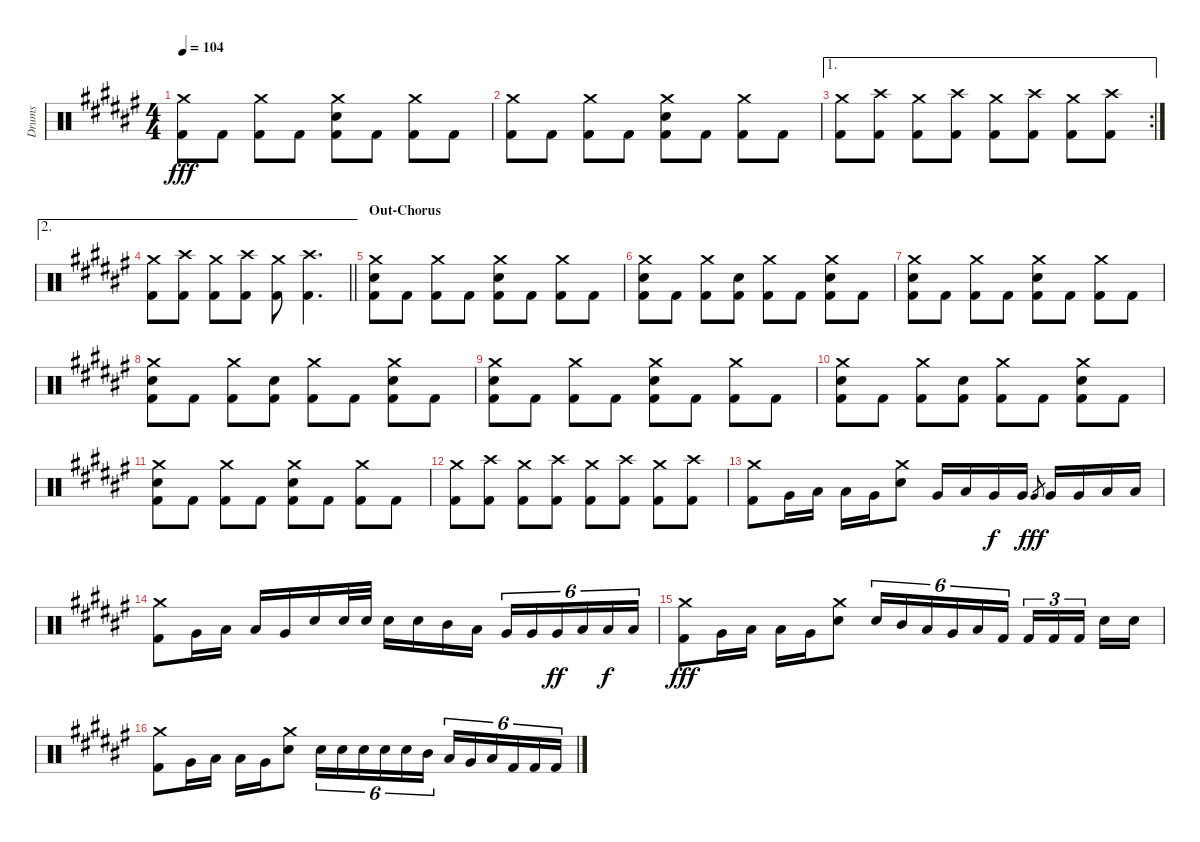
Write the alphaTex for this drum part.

\track ("Drums" "Drums") {instrument percussion}
\staff {score}
\articulation defaults
\ts (4 4)
\tempo 104
\clef neutral
\ks f#
("Crash medium (hit)" "Kick (hit) 2").8{dy fff} "Kick (hit) 2".8 ("Crash medium (hit)" "Kick (hit) 2").8 "Kick (hit) 2".8 ("Crash medium (hit)" "Snare (hit) 2" "Kick (hit) 2").8 "Kick (hit) 2".8 ("Crash medium (hit)" "Kick (hit) 2").8 "Kick (hit) 2".8 |
("Crash medium (hit)" "Kick (hit) 2").8 "Kick (hit) 2".8 ("Crash medium (hit)" "Kick (hit) 2").8 "Kick (hit) 2".8 ("Crash medium (hit)" "Snare (hit) 2" "Kick (hit) 2").8 "Kick (hit) 2".8 ("Crash medium (hit)" "Kick (hit) 2").8 "Kick (hit) 2".8 |
\ae 1
\rc 2
("Crash medium (hit)" "Kick (hit) 2").8 ("Crash high (hit)" "Kick (hit) 2").8 ("Crash medium (hit)" "Kick (hit) 2").8 ("Crash high (hit)" "Kick (hit) 2").8 ("Crash medium (hit)" "Kick (hit) 2").8 ("Crash high (hit)" "Kick (hit) 2").8 ("Crash medium (hit)" "Kick (hit) 2").8 ("Crash high (hit)" "Kick (hit) 2").8 |
\ae 2
\barLineRight lightlight
("Crash medium (hit)" "Kick (hit) 2").8 ("Crash high (hit)" "Kick (hit) 2").8 ("Crash medium (hit)" "Kick (hit) 2").8 ("Crash high (hit)" "Kick (hit) 2").8 ("Crash medium (hit)" "Kick (hit) 2").8 ("Crash high (hit)" "Kick (hit) 2").4{d} |
\section ("" "Out-Chorus")
("Crash medium (hit)" "Snare (hit) 2" "Kick (hit) 2").8 "Kick (hit) 2".8 ("Crash medium (hit)" "Kick (hit) 2").8 "Kick (hit) 2".8 ("Crash medium (hit)" "Snare (hit) 2" "Kick (hit) 2").8 "Kick (hit) 2".8 ("Crash medium (hit)" "Kick (hit) 2").8 "Kick (hit) 2".8 |
("Crash medium (hit)" "Snare (hit) 2" "Kick (hit) 2").8 "Kick (hit) 2".8 ("Crash medium (hit)" "Kick (hit) 2").8 ("Snare (hit) 2" "Kick (hit) 2").8 ("Crash medium (hit)" "Kick (hit) 2").8 "Kick (hit) 2".8 ("Crash medium (hit)" "Snare (hit) 2" "Kick (hit) 2").8 "Kick (hit) 2".8 |
("Crash medium (hit)" "Snare (hit) 2" "Kick (hit) 2").8 "Kick (hit) 2".8 ("Crash medium (hit)" "Kick (hit) 2").8 "Kick (hit) 2".8 ("Crash medium (hit)" "Snare (hit) 2" "Kick (hit) 2").8 "Kick (hit) 2".8 ("Crash medium (hit)" "Kick (hit) 2").8 "Kick (hit) 2".8 |
("Crash medium (hit)" "Snare (hit) 2" "Kick (hit) 2").8 "Kick (hit) 2".8 ("Crash medium (hit)" "Kick (hit) 2").8 ("Snare (hit) 2" "Kick (hit) 2").8 ("Crash medium (hit)" "Kick (hit) 2").8 "Kick (hit) 2".8 ("Crash medium (hit)" "Snare (hit) 2" "Kick (hit) 2").8 "Kick (hit) 2".8 |
("Crash medium (hit)" "Snare (hit) 2" "Kick (hit) 2").8 "Kick (hit) 2".8 ("Crash medium (hit)" "Kick (hit) 2").8 "Kick (hit) 2".8 ("Crash medium (hit)" "Snare (hit) 2" "Kick (hit) 2").8 "Kick (hit) 2".8 ("Crash medium (hit)" "Kick (hit) 2").8 "Kick (hit) 2".8 |
("Crash medium (hit)" "Snare (hit) 2" "Kick (hit) 2").8 "Kick (hit) 2".8 ("Crash medium (hit)" "Kick (hit) 2").8 ("Snare (hit) 2" "Kick (hit) 2").8 ("Crash medium (hit)" "Kick (hit) 2").8 "Kick (hit) 2".8 ("Crash medium (hit)" "Snare (hit) 2" "Kick (hit) 2").8 "Kick (hit) 2".8 |
("Crash medium (hit)" "Snare (hit) 2" "Kick (hit) 2").8 "Kick (hit) 2".8 ("Crash medium (hit)" "Kick (hit) 2").8 "Kick (hit) 2".8 ("Crash medium (hit)" "Snare (hit) 2" "Kick (hit) 2").8 "Kick (hit) 2".8 ("Crash medium (hit)" "Kick (hit) 2").8 "Kick (hit) 2".8 |
("Crash medium (hit)" "Kick (hit) 2").8 ("Crash high (hit)" "Kick (hit) 2").8 ("Crash medium (hit)" "Kick (hit) 2").8 ("Crash high (hit)" "Kick (hit) 2").8 ("Crash medium (hit)" "Kick (hit) 2").8 ("Crash high (hit)" "Kick (hit) 2").8 ("Crash medium (hit)" "Kick (hit) 2").8 ("Crash high (hit)" "Kick (hit) 2").8 |
("Crash medium (hit)" "Kick (hit) 2").8 "Very Low Tom (hit)".16 "Low Tom (hit)".16 "Low Floor Tom (hit)".16 "Very Low Tom (hit)".16 ("Crash medium (hit)" "Snare (hit) 2").8 "Very Low Tom (hit)".16 "Low Floor Tom (hit)".16 "Very Low Tom (hit)".16{dy f} "Very Low Tom (hit)".16 "Very Low Tom (hit)".8{gr dy fff} "Very Low Tom (hit)".16 "Very Low Tom (hit)".16 "Low Floor Tom (hit)".16 "Low Floor Tom (hit)".16 |
("Crash medium (hit)" "Kick (hit) 2").8 "Very Low Tom (hit)".16 "Low Tom (hit)".16 "Low Floor Tom (hit)".16 "Very Low Tom (hit)".16 "Snare (hit) 2".16 "Snare (hit) 2".32 "Snare (hit) 2".32 "Snare (hit) 2".16 "Snare (hit) 2".16 "Mid Tom (hit)".16 "Low Tom (hit)".16 "Very Low Tom (hit)".16{tu (6 4)} "Very Low Tom (hit)".16{tu (6 4)} "Very Low Tom (hit)".16{tu (6 4) dy ff} "Low Floor Tom (hit)".16{tu (6 4)} "Low Floor Tom (hit)".16{tu (6 4) dy f} "Low Floor Tom (hit)".16{tu (6 4)} |
("Crash medium (hit)" "Kick (hit) 2").8{dy fff} "Very Low Tom (hit)".16 "Low Tom (hit)".16 "Low Floor Tom (hit)".16 "Very Low Tom (hit)".16 ("Crash medium (hit)" "Snare (hit) 2").8 "Snare (hit) 2".16{tu (6 4)} "Mid Tom (hit)".16{tu (6 4)} "Low Tom (hit)".16{tu (6 4)} "Very Low Tom (hit)".16{tu (6 4)} "Low Floor Tom (hit)".16{tu (6 4)} "Kick (hit) 2".16{tu (6 4)} "Kick (hit) 2".16{tu (3 2)} "Kick (hit) 2".16{tu (3 2)} "Kick (hit) 2".16{tu (3 2) beam splitsecondary} "Snare (hit) 2".16 "Snare (hit) 2".16 |
("Crash medium (hit)" "Kick (hit) 2").8 "Very Low Tom (hit)".16 "Low Tom (hit)".16 "Low Floor Tom (hit)".16 "Very Low Tom (hit)".16 ("Crash medium (hit)" "Snare (hit) 2").8 "Snare (hit) 2".16{tu (6 4)} "Snare (hit) 2".16{tu (6 4)} "Snare (hit) 2".16{tu (6 4)} "Snare (hit) 2".16{tu (6 4)} "Snare (hit) 2".16{tu (6 4)} "Mid Tom (hit)".16{tu (6 4)} "Low Tom (hit)".16{tu (6 4)} "Very Low Tom (hit)".16{tu (6 4)} "Low Floor Tom (hit)".16{tu (6 4)} "Kick (hit) 2".16{tu (6 4)} "Kick (hit) 2".16{tu (6 4)} "Kick (hit) 2".16{tu (6 4)}
